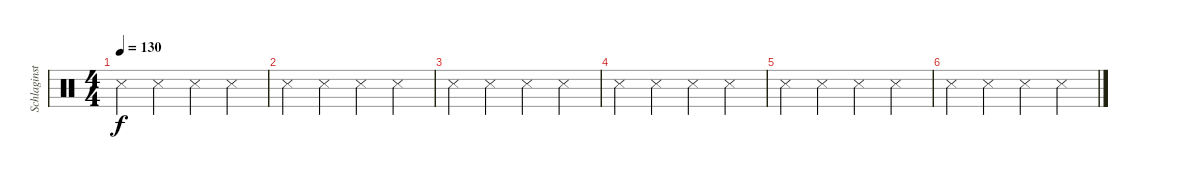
\track ("Schlaginstrumente - Auswahl" "Schlaginst") {instrument percussion}
\staff {score}
\articulation defaults
\ts (4 4)
\tempo 130
\clef neutral
\ks c "Metronome (hit)".4{dy f} "Metronome (hit)".4 "Metronome (hit)".4 "Metronome (hit)".4
|
"Metronome (hit)".4 "Metronome (hit)".4 "Metronome (hit)".4 "Metronome (hit)".4 |
"Metronome (hit)".4 "Metronome (hit)".4 "Metronome (hit)".4 "Metronome (hit)".4 |
"Metronome (hit)".4 "Metronome (hit)".4 "Metronome (hit)".4 "Metronome (hit)".4 |
"Metronome (hit)".4 "Metronome (hit)".4 "Metronome (hit)".4 "Metronome (hit)".4 |
"Metronome (hit)".4 "Metronome (hit)".4 "Metronome (hit)".4 "Metronome (hit)".4
